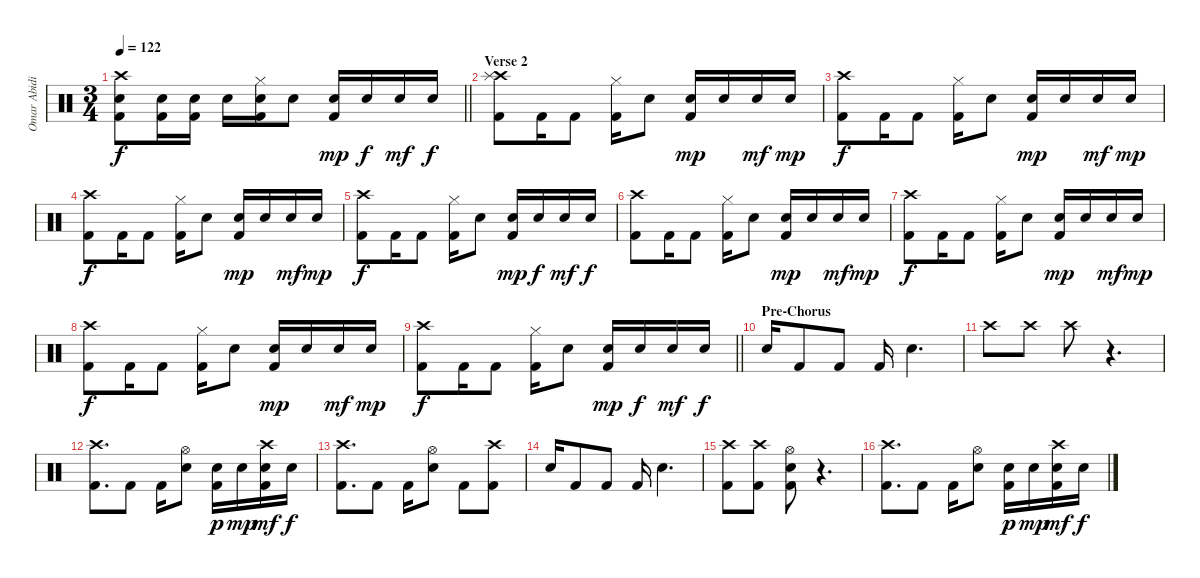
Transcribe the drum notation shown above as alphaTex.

\track ("Omar Abidi" "Omar Abidi") {instrument percussion}
\staff {score}
\articulation defaults
\ts (3 4)
\tempo 122
\clef neutral
\barLineRight lightlight
\ks c
("Crash high (hit)" "Electric Snare (hit)" "Kick (hit) 2").8{dy f} ("Electric Snare (hit)" "Kick (hit) 2").16 ("Electric Snare (hit)" "Kick (hit) 2").16 "Snare (hit) 2".16 ("Hi-Hat (closed)" "Electric Snare (hit)" "Kick (hit) 2").16 "Electric Snare (hit)".8 ("Electric Snare (hit)" "Kick (hit) 2").16{dy mp} "Electric Snare (hit)".16{dy f} "Snare (hit) 2".16{dy mf} "Electric Snare (hit)".16{dy f} |
\section ("" "Verse 2")
("Crash high (hit)" "Splash (hit)" "Kick (hit) 2").8 "Kick (hit) 2".16 "Kick (hit) 2".8 ("Hi-Hat (closed)" "Kick (hit) 2").16 "Electric Snare (hit)".8 ("Snare (hit) 2" "Kick (hit) 2").16{dy mp} "Snare (hit) 2".16 "Snare (hit) 2".16{dy mf} "Snare (hit) 2".16{dy mp} |
("Crash high (hit)" "Kick (hit) 2").8{dy f} "Kick (hit) 2".16 "Kick (hit) 2".8 ("Hi-Hat (closed)" "Kick (hit) 2").16 "Electric Snare (hit)".8 ("Snare (hit) 2" "Kick (hit) 2").16{dy mp} "Snare (hit) 2".16 "Snare (hit) 2".16{dy mf} "Snare (hit) 2".16{dy mp} |
("Crash high (hit)" "Kick (hit) 2").8{dy f} "Kick (hit) 2".16 "Kick (hit) 2".8 ("Hi-Hat (closed)" "Kick (hit) 2").16 "Electric Snare (hit)".8 ("Snare (hit) 2" "Kick (hit) 2").16{dy mp} "Snare (hit) 2".16 "Snare (hit) 2".16{dy mf} "Snare (hit) 2".16{dy mp} |
("Crash high (hit)" "Kick (hit) 2").8{dy f} "Kick (hit) 2".16 "Kick (hit) 2".8 ("Hi-Hat (closed)" "Kick (hit) 2").16 "Electric Snare (hit)".8 ("Electric Snare (hit)" "Kick (hit) 2").16{dy mp} "Electric Snare (hit)".16{dy f} "Snare (hit) 2".16{dy mf} "Electric Snare (hit)".16{dy f} |
("Crash high (hit)" "Kick (hit) 2").8 "Kick (hit) 2".16 "Kick (hit) 2".8 ("Hi-Hat (closed)" "Kick (hit) 2").16 "Electric Snare (hit)".8 ("Snare (hit) 2" "Kick (hit) 2").16{dy mp} "Snare (hit) 2".16 "Snare (hit) 2".16{dy mf} "Snare (hit) 2".16{dy mp} |
("Crash high (hit)" "Kick (hit) 2").8{dy f} "Kick (hit) 2".16 "Kick (hit) 2".8 ("Hi-Hat (closed)" "Kick (hit) 2").16 "Electric Snare (hit)".8 ("Snare (hit) 2" "Kick (hit) 2").16{dy mp} "Snare (hit) 2".16 "Snare (hit) 2".16{dy mf} "Snare (hit) 2".16{dy mp} |
("Crash high (hit)" "Kick (hit) 2").8{dy f} "Kick (hit) 2".16 "Kick (hit) 2".8 ("Hi-Hat (closed)" "Kick (hit) 2").16 "Electric Snare (hit)".8 ("Snare (hit) 2" "Kick (hit) 2").16{dy mp} "Snare (hit) 2".16 "Snare (hit) 2".16{dy mf} "Snare (hit) 2".16{dy mp} |
\barLineRight lightlight
("Crash high (hit)" "Kick (hit) 2").8{dy f} "Kick (hit) 2".16 "Kick (hit) 2".8 ("Hi-Hat (closed)" "Kick (hit) 2").16 "Electric Snare (hit)".8 ("Electric Snare (hit)" "Kick (hit) 2").16{dy mp} "Electric Snare (hit)".16{dy f} "Snare (hit) 2".16{dy mf} "Electric Snare (hit)".16{dy f} |
\section ("" "Pre-Chorus")
"Electric Snare (hit)".16{volume 13} "Kick (hit) 2".8 "Kick (hit) 2".8 "Kick (hit) 2".16 "Electric Snare (hit)".4{d} |
"Crash high (hit)".8 "Crash high (hit)".8 "Crash high (hit)".8 r.4{d} |
("Crash high (hit)" "Kick (hit) 2").8{d} "Kick (hit) 2".8 "Kick (hit) 2".16 ("Hi-Hat (open)" "Electric Snare (hit)").8 ("Snare (hit) 2" "Kick (hit) 2").16{dy p} "Snare (hit) 2".16{dy mp} ("Crash high (hit)" "Snare (hit) 2" "Kick (hit) 2").16{dy mf} "Snare (hit) 2".16{dy f} |
("Crash high (hit)" "Kick (hit) 2").8{d} "Kick (hit) 2".8 "Kick (hit) 2".16 ("Hi-Hat (open)" "Electric Snare (hit)").8 "Kick (hit) 2".8 ("Crash high (hit)" "Kick (hit) 2").8 |
"Electric Snare (hit)".16 "Kick (hit) 2".8 "Kick (hit) 2".8 "Kick (hit) 2".16 "Electric Snare (hit)".4{d} |
("Crash high (hit)" "Kick (hit) 2").8 ("Crash high (hit)" "Kick (hit) 2").8 ("Hi-Hat (open)" "Electric Snare (hit)" "Kick (hit) 2").8 r.4{d} |
("Crash high (hit)" "Kick (hit) 2").8{d} "Kick (hit) 2".8 "Kick (hit) 2".16 ("Hi-Hat (open)" "Electric Snare (hit)").8 ("Snare (hit) 2" "Kick (hit) 2").16{dy p} "Snare (hit) 2".16{dy mp} ("Crash high (hit)" "Snare (hit) 2" "Kick (hit) 2").16{dy mf} "Snare (hit) 2".16{dy f}
